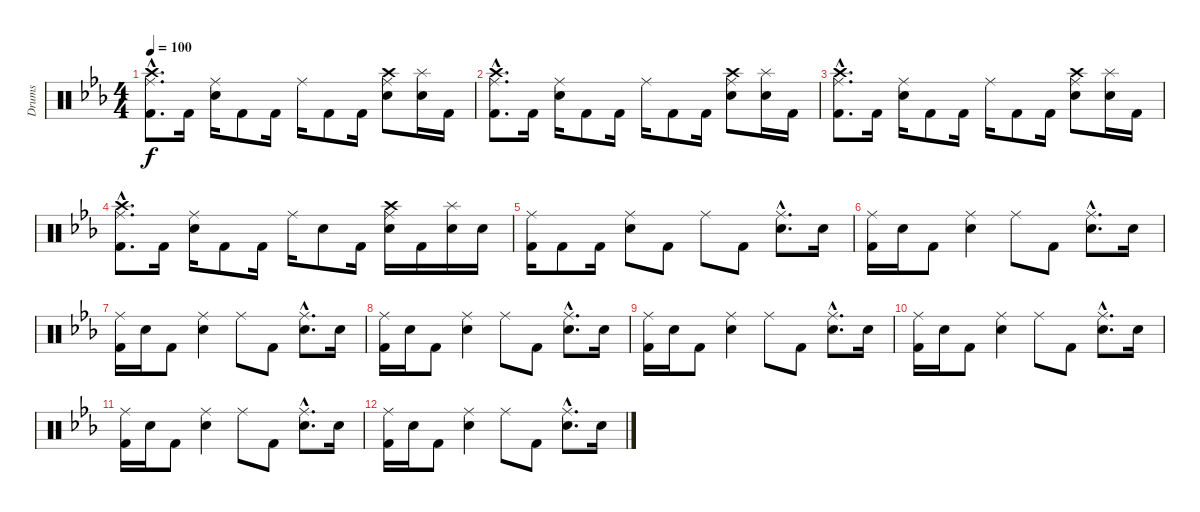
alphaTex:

\track ("Drums" "Drums") {instrument percussion}
\staff {score}
\articulation defaults
\ts (4 4)
\tempo 100
\clef neutral
\ks cminor
("Ride (middle)"{hac} "Crash high (hit)"{hac} "Kick (hit) 2"{hac}).8{d dy f} "Kick (hit) 2".16 ("Ride (middle)" "Electric Snare (hit)").16 "Kick (hit) 2".8 "Kick (hit) 2".16 "Ride (middle)".16 "Kick (hit) 2".8 "Kick (hit) 2".16 ("Ride (middle)" "Crash high (hit)" "Electric Snare (hit)").8 ("Splash (hit)" "Electric Snare (hit)").16 "Kick (hit) 2".16 |
("Ride (middle)"{hac} "Crash high (hit)"{hac} "Kick (hit) 2"{hac}).8{d} "Kick (hit) 2".16 ("Ride (middle)" "Electric Snare (hit)").16 "Kick (hit) 2".8 "Kick (hit) 2".16 "Ride (middle)".16 "Kick (hit) 2".8 "Kick (hit) 2".16 ("Ride (middle)" "Crash high (hit)" "Electric Snare (hit)").8 ("Splash (hit)" "Electric Snare (hit)").16 "Kick (hit) 2".16 |
("Ride (middle)"{hac} "Crash high (hit)"{hac} "Kick (hit) 2"{hac}).8{d} "Kick (hit) 2".16 ("Ride (middle)" "Electric Snare (hit)").16 "Kick (hit) 2".8 "Kick (hit) 2".16 "Ride (middle)".16 "Kick (hit) 2".8 "Kick (hit) 2".16 ("Ride (middle)" "Crash high (hit)" "Electric Snare (hit)").8 ("Splash (hit)" "Electric Snare (hit)").16 "Kick (hit) 2".16 |
("Ride (middle)"{hac} "Crash high (hit)"{hac} "Kick (hit) 2"{hac}).8{d} "Kick (hit) 2".16 ("Ride (middle)" "Electric Snare (hit)").16 "Kick (hit) 2".8 "Kick (hit) 2".16 "Ride (middle)".16 "Electric Snare (hit)".8 "Kick (hit) 2".16 ("Ride (middle)" "Crash high (hit)" "Electric Snare (hit)").16 "Kick (hit) 2".16 ("Splash (hit)" "Electric Snare (hit)").16 "Electric Snare (hit)".16 |
("Ride (middle)" "Kick (hit) 2").16 "Kick (hit) 2".8 "Kick (hit) 2".16 ("Ride (middle)" "Electric Snare (hit)").8 "Kick (hit) 2".8 "Ride (middle)".8 "Kick (hit) 2".8 ("Ride (middle)"{hac} "Electric Snare (hit)"{hac}).8{d} "Electric Snare (hit)".16 |
("Ride (middle)" "Kick (hit) 2").16 "Electric Snare (hit)".16 "Kick (hit) 2".8 ("Ride (middle)" "Electric Snare (hit)").4 "Ride (middle)".8 "Kick (hit) 2".8 ("Ride (middle)"{hac} "Electric Snare (hit)"{hac}).8{d} "Electric Snare (hit)".16 |
("Ride (middle)" "Kick (hit) 2").16 "Electric Snare (hit)".16 "Kick (hit) 2".8 ("Ride (middle)" "Electric Snare (hit)").4 "Ride (middle)".8 "Kick (hit) 2".8 ("Ride (middle)"{hac} "Electric Snare (hit)"{hac}).8{d} "Electric Snare (hit)".16 |
("Ride (middle)" "Kick (hit) 2").16 "Electric Snare (hit)".16 "Kick (hit) 2".8 ("Ride (middle)" "Electric Snare (hit)").4 "Ride (middle)".8 "Kick (hit) 2".8 ("Ride (middle)"{hac} "Electric Snare (hit)"{hac}).8{d} "Electric Snare (hit)".16 |
("Ride (middle)" "Kick (hit) 2").16 "Electric Snare (hit)".16 "Kick (hit) 2".8 ("Ride (middle)" "Electric Snare (hit)").4 "Ride (middle)".8 "Kick (hit) 2".8 ("Ride (middle)"{hac} "Electric Snare (hit)"{hac}).8{d} "Electric Snare (hit)".16 |
("Ride (middle)" "Kick (hit) 2").16 "Electric Snare (hit)".16 "Kick (hit) 2".8 ("Ride (middle)" "Electric Snare (hit)").4 "Ride (middle)".8 "Kick (hit) 2".8 ("Ride (middle)"{hac} "Electric Snare (hit)"{hac}).8{d} "Electric Snare (hit)".16 |
("Ride (middle)" "Kick (hit) 2").16 "Electric Snare (hit)".16 "Kick (hit) 2".8 ("Ride (middle)" "Electric Snare (hit)").4 "Ride (middle)".8 "Kick (hit) 2".8 ("Ride (middle)"{hac} "Electric Snare (hit)"{hac}).8{d} "Electric Snare (hit)".16 |
("Ride (middle)" "Kick (hit) 2").16 "Electric Snare (hit)".16 "Kick (hit) 2".8 ("Ride (middle)" "Electric Snare (hit)").4 "Ride (middle)".8 "Kick (hit) 2".8 ("Ride (middle)"{hac} "Electric Snare (hit)"{hac}).8{d} "Electric Snare (hit)".16
